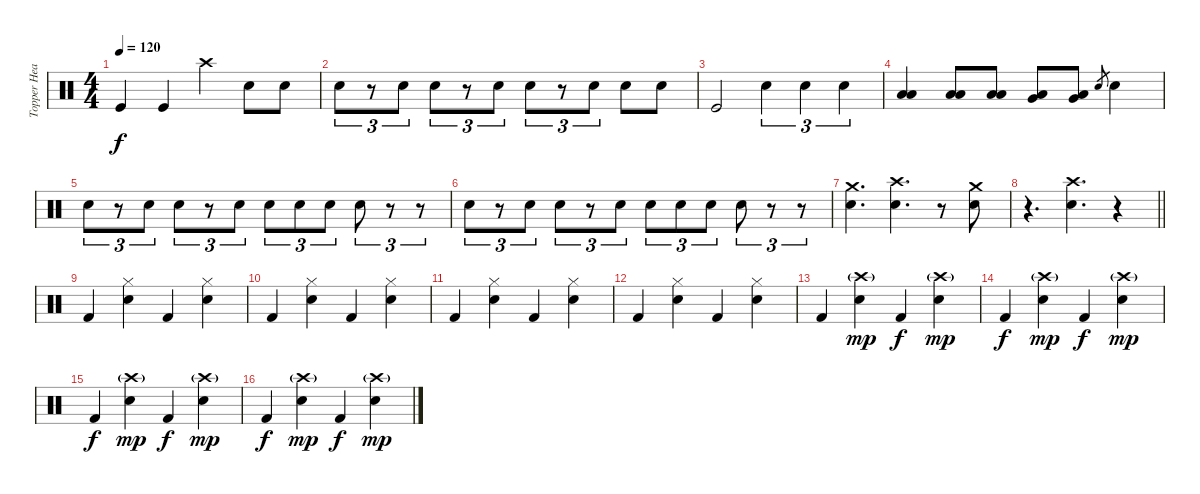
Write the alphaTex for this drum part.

\track ("Topper Headon" "Topper Hea") {instrument percussion}
\staff {score}
\articulation defaults
\ts (4 4)
\tempo 120
\clef neutral
\ks c "Kick (hit)".4{dy f} "Kick (hit)".4 "Crash high (hit)".4 "Electric Snare (hit)".8 "Electric Snare (hit)".8
|
"Electric Snare (hit)".8{tu (3 2)} r.8{tu (3 2)} "Electric Snare (hit)".8{tu (3 2)} "Electric Snare (hit)".8{tu (3 2)} r.8{tu (3 2)} "Electric Snare (hit)".8{tu (3 2)} "Electric Snare (hit)".8{tu (3 2)} r.8{tu (3 2)} "Electric Snare (hit)".8{tu (3 2)} "Electric Snare (hit)".8 "Electric Snare (hit)".8 |
"Kick (hit)".2 "Electric Snare (hit)".4{tu (3 2)} "Electric Snare (hit)".4{tu (3 2)} "Electric Snare (hit)".4{tu (3 2)} |
("Low Floor Tom (hit)" "Low Tom (hit)").4 ("Low Floor Tom (hit)" "Low Tom (hit)").8 ("Low Floor Tom (hit)" "Low Tom (hit)").8 ("Low Floor Tom (hit)" "Very Low Tom (hit)").8 ("Low Floor Tom (hit)" "Very Low Tom (hit)").8 "Electric Snare (hit)".8{gr} "Electric Snare (hit)".4 |
"Electric Snare (hit)".8{tu (3 2)} r.8{tu (3 2)} "Electric Snare (hit)".8{tu (3 2)} "Electric Snare (hit)".8{tu (3 2)} r.8{tu (3 2)} "Electric Snare (hit)".8{tu (3 2)} "Electric Snare (hit)".8{tu (3 2)} "Electric Snare (hit)".8{tu (3 2)} "Electric Snare (hit)".8{tu (3 2)} "Electric Snare (hit)".8{tu (3 2)} r.8{tu (3 2)} r.8{tu (3 2)} |
"Electric Snare (hit)".8{tu (3 2)} r.8{tu (3 2)} "Electric Snare (hit)".8{tu (3 2)} "Electric Snare (hit)".8{tu (3 2)} r.8{tu (3 2)} "Electric Snare (hit)".8{tu (3 2)} "Electric Snare (hit)".8{tu (3 2)} "Electric Snare (hit)".8{tu (3 2)} "Electric Snare (hit)".8{tu (3 2)} "Electric Snare (hit)".8{tu (3 2)} r.8{tu (3 2)} r.8{tu (3 2)} |
("Crash medium (hit)" "Electric Snare (hit)").4{d} ("Crash high (hit)" "Electric Snare (hit)").4{d} r.8 ("Crash medium (hit)" "Electric Snare (hit)").8 |
\barLineRight lightlight
r.4{d} ("Crash high (hit)" "Electric Snare (hit)").4{d} r.4 |
"Kick (hit) 2".4 ("Hi-Hat (closed)" "Electric Snare (hit)").4 "Kick (hit) 2".4 ("Hi-Hat (closed)" "Electric Snare (hit)").4 |
"Kick (hit) 2".4 ("Hi-Hat (closed)" "Electric Snare (hit)").4 "Kick (hit) 2".4 ("Hi-Hat (closed)" "Electric Snare (hit)").4 |
"Kick (hit) 2".4 ("Hi-Hat (closed)" "Electric Snare (hit)").4 "Kick (hit) 2".4 ("Hi-Hat (closed)" "Electric Snare (hit)").4 |
"Kick (hit) 2".4 ("Hi-Hat (closed)" "Electric Snare (hit)").4 "Kick (hit) 2".4 ("Hi-Hat (closed)" "Electric Snare (hit)").4 |
"Kick (hit) 2".4 ("Crash high (hit)"{g} "Electric Snare (hit)").4{dy mp} "Kick (hit) 2".4{dy f} ("Crash high (hit)"{g} "Electric Snare (hit)").4{dy mp} |
"Kick (hit) 2".4{dy f} ("Crash high (hit)"{g} "Electric Snare (hit)").4{dy mp} "Kick (hit) 2".4{dy f} ("Crash high (hit)"{g} "Electric Snare (hit)").4{dy mp} |
"Kick (hit) 2".4{dy f} ("Crash high (hit)"{g} "Electric Snare (hit)").4{dy mp} "Kick (hit) 2".4{dy f} ("Crash high (hit)"{g} "Electric Snare (hit)").4{dy mp} |
"Kick (hit) 2".4{dy f} ("Crash high (hit)"{g} "Electric Snare (hit)").4{dy mp} "Kick (hit) 2".4{dy f} ("Crash high (hit)"{g} "Electric Snare (hit)").4{dy mp}
